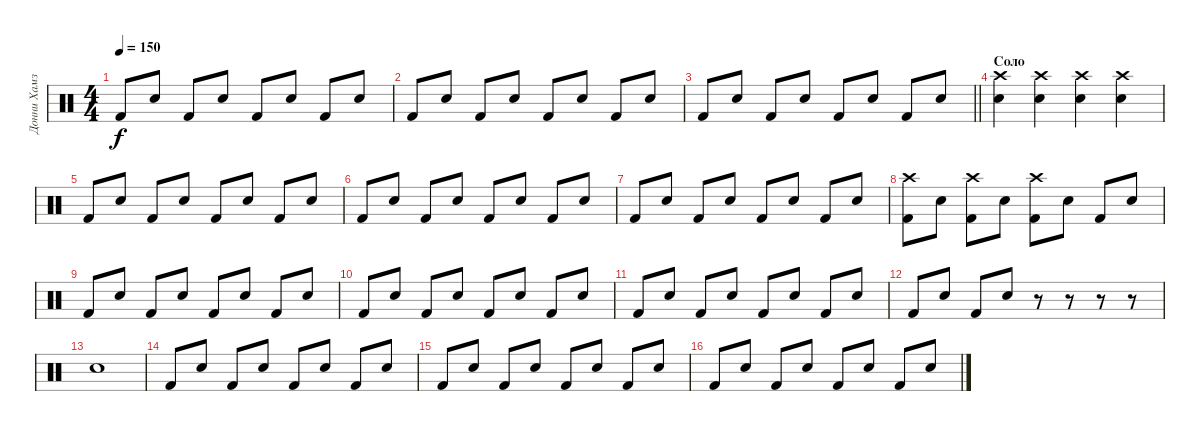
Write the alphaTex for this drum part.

\track ("Донни Хамзик" "Донни Хамз") {instrument percussion}
\staff {score}
\articulation defaults
\ts (4 4)
\tempo 150
\clef neutral
\ks c "Kick (hit) 2".8{dy f} "Snare (hit) 2".8 "Kick (hit) 2".8 "Snare (hit) 2".8 "Kick (hit) 2".8 "Snare (hit) 2".8 "Kick (hit) 2".8 "Snare (hit) 2".8
|
"Kick (hit) 2".8 "Snare (hit) 2".8 "Kick (hit) 2".8 "Snare (hit) 2".8 "Kick (hit) 2".8 "Snare (hit) 2".8 "Kick (hit) 2".8 "Snare (hit) 2".8 |
\barLineRight lightlight "Kick (hit) 2".8 "Snare (hit) 2".8 "Kick (hit) 2".8 "Snare (hit) 2".8 "Kick (hit) 2".8 "Snare (hit) 2".8 "Kick (hit) 2".8 "Snare (hit) 2".8
|
\section ("" "Соло")
("Crash high (hit)" "Snare (hit) 2").4 ("Crash high (hit)" "Snare (hit) 2").4 ("Crash high (hit)" "Snare (hit) 2").4 ("Crash high (hit)" "Snare (hit) 2").4 |
"Kick (hit) 2".8 "Snare (hit) 2".8 "Kick (hit) 2".8 "Snare (hit) 2".8 "Kick (hit) 2".8 "Snare (hit) 2".8 "Kick (hit) 2".8 "Snare (hit) 2".8 |
"Kick (hit) 2".8 "Snare (hit) 2".8 "Kick (hit) 2".8 "Snare (hit) 2".8 "Kick (hit) 2".8 "Snare (hit) 2".8 "Kick (hit) 2".8 "Snare (hit) 2".8 |
"Kick (hit) 2".8 "Snare (hit) 2".8 "Kick (hit) 2".8 "Snare (hit) 2".8 "Kick (hit) 2".8 "Snare (hit) 2".8 "Kick (hit) 2".8 "Snare (hit) 2".8 |
("Crash high (hit)" "Kick (hit) 2").8 "Snare (hit) 2".8 ("Crash high (hit)" "Kick (hit) 2").8 "Snare (hit) 2".8 ("Crash high (hit)" "Kick (hit) 2").8 "Snare (hit) 2".8 "Kick (hit) 2".8 "Snare (hit) 2".8 |
"Kick (hit) 2".8 "Snare (hit) 2".8 "Kick (hit) 2".8 "Snare (hit) 2".8 "Kick (hit) 2".8 "Snare (hit) 2".8 "Kick (hit) 2".8 "Snare (hit) 2".8 |
"Kick (hit) 2".8 "Snare (hit) 2".8 "Kick (hit) 2".8 "Snare (hit) 2".8 "Kick (hit) 2".8 "Snare (hit) 2".8 "Kick (hit) 2".8 "Snare (hit) 2".8 |
"Kick (hit) 2".8 "Snare (hit) 2".8 "Kick (hit) 2".8 "Snare (hit) 2".8 "Kick (hit) 2".8 "Snare (hit) 2".8 "Kick (hit) 2".8 "Snare (hit) 2".8 |
"Kick (hit) 2".8 "Snare (hit) 2".8 "Kick (hit) 2".8 "Snare (hit) 2".8 r.8 r.8 r.8 r.8 |
"Snare (hit) 2".1 |
"Kick (hit) 2".8 "Snare (hit) 2".8 "Kick (hit) 2".8 "Snare (hit) 2".8 "Kick (hit) 2".8 "Snare (hit) 2".8 "Kick (hit) 2".8 "Snare (hit) 2".8 |
"Kick (hit) 2".8 "Snare (hit) 2".8 "Kick (hit) 2".8 "Snare (hit) 2".8 "Kick (hit) 2".8 "Snare (hit) 2".8 "Kick (hit) 2".8 "Snare (hit) 2".8 |
"Kick (hit) 2".8 "Snare (hit) 2".8 "Kick (hit) 2".8 "Snare (hit) 2".8 "Kick (hit) 2".8 "Snare (hit) 2".8 "Kick (hit) 2".8 "Snare (hit) 2".8
